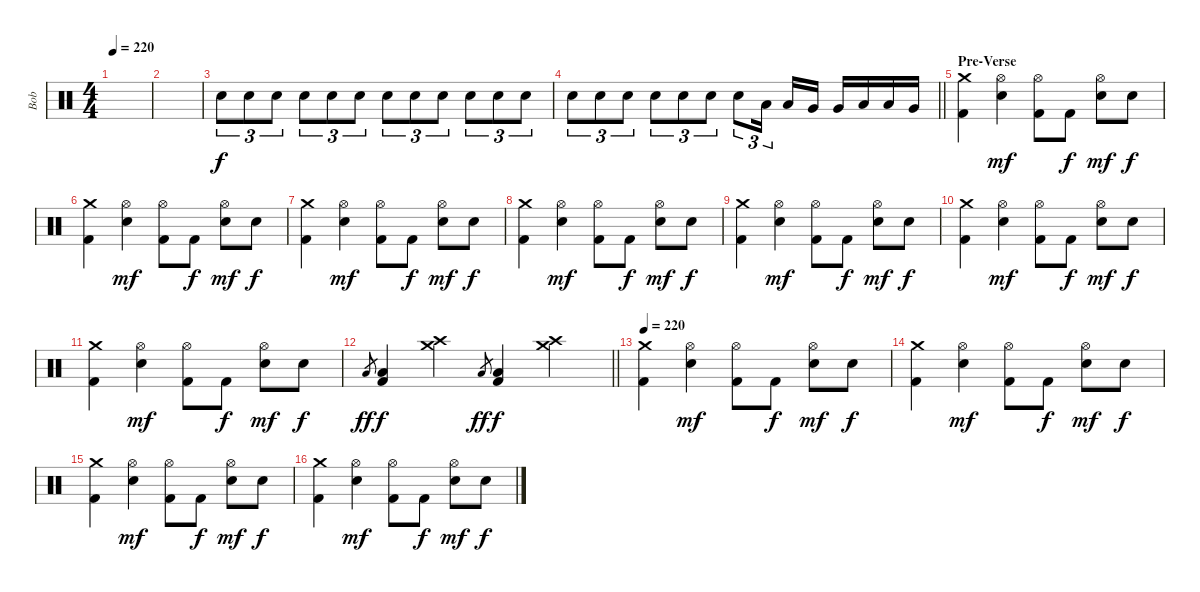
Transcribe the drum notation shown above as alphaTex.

\track ("Bob" "Bob") {instrument percussion}
\staff {score}
\articulation defaults
\ts (4 4)
\tempo 220
\clef neutral
\ks c
|
|
"Snare (hit) 2".8{tu (3 2)} "Snare (hit) 2".8{tu (3 2)} "Snare (hit) 2".8{tu (3 2)} "Snare (hit) 2".8{tu (3 2)} "Snare (hit) 2".8{tu (3 2)} "Snare (hit) 2".8{tu (3 2)} "Snare (hit) 2".8{tu (3 2)} "Snare (hit) 2".8{tu (3 2)} "Snare (hit) 2".8{tu (3 2)} "Snare (hit) 2".8{tu (3 2)} "Snare (hit) 2".8{tu (3 2)} "Snare (hit) 2".8{tu (3 2)} |
\barLineRight lightlight "Snare (hit) 2".8{tu (3 2)} "Snare (hit) 2".8{tu (3 2)} "Snare (hit) 2".8{tu (3 2)} "Snare (hit) 2".8{tu (3 2)} "Snare (hit) 2".8{tu (3 2)} "Snare (hit) 2".8{tu (3 2)} "Snare (hit) 2".8{tu (3 2)} "Low Tom (hit)".16{tu (3 2)} "Low Tom (hit)".16 "Very Low Tom (hit)".16 "Very Low Tom (hit)".16 "Low Floor Tom (hit)".16 "Low Floor Tom (hit)".16 "Very Low Tom (hit)".16
|
\section ("" "Pre-Verse")
("Crash medium (hit)" "Kick (hit) 2").4 ("Hi-Hat (open)" "Electric Snare (hit)").4{dy mf} ("Hi-Hat (open)" "Kick (hit) 2").8 "Kick (hit) 2".8{dy f} ("Hi-Hat (open)" "Electric Snare (hit)").8{dy mf} "Electric Snare (hit)".8{dy f} |
("Crash medium (hit)" "Kick (hit) 2").4 ("Hi-Hat (open)" "Electric Snare (hit)").4{dy mf} ("Hi-Hat (open)" "Kick (hit) 2").8 "Kick (hit) 2".8{dy f} ("Hi-Hat (open)" "Electric Snare (hit)").8{dy mf} "Electric Snare (hit)".8{dy f} |
("Crash medium (hit)" "Kick (hit) 2").4 ("Hi-Hat (open)" "Electric Snare (hit)").4{dy mf} ("Hi-Hat (open)" "Kick (hit) 2").8 "Kick (hit) 2".8{dy f} ("Hi-Hat (open)" "Electric Snare (hit)").8{dy mf} "Electric Snare (hit)".8{dy f} |
("Crash medium (hit)" "Kick (hit) 2").4 ("Hi-Hat (open)" "Electric Snare (hit)").4{dy mf} ("Hi-Hat (open)" "Kick (hit) 2").8 "Kick (hit) 2".8{dy f} ("Hi-Hat (open)" "Electric Snare (hit)").8{dy mf} "Electric Snare (hit)".8{dy f} |
("Crash medium (hit)" "Kick (hit) 2").4 ("Hi-Hat (open)" "Electric Snare (hit)").4{dy mf} ("Hi-Hat (open)" "Kick (hit) 2").8 "Kick (hit) 2".8{dy f} ("Hi-Hat (open)" "Electric Snare (hit)").8{dy mf} "Electric Snare (hit)".8{dy f} |
("Crash medium (hit)" "Kick (hit) 2").4 ("Hi-Hat (open)" "Electric Snare (hit)").4{dy mf} ("Hi-Hat (open)" "Kick (hit) 2").8 "Kick (hit) 2".8{dy f} ("Hi-Hat (open)" "Electric Snare (hit)").8{dy mf} "Electric Snare (hit)".8{dy f} |
("Crash medium (hit)" "Kick (hit) 2").4 ("Hi-Hat (open)" "Electric Snare (hit)").4{dy mf} ("Hi-Hat (open)" "Kick (hit) 2").8 "Kick (hit) 2".8{dy f} ("Hi-Hat (open)" "Electric Snare (hit)").8{dy mf} "Electric Snare (hit)".8{dy f} |
\barLineRight lightlight "Low Floor Tom (hit)".8{gr dy ff}
("Low Floor Tom (hit)" "Kick (hit) 2").4{dy f} ("Crash medium (hit)" "Crash high (hit)").4 "Low Floor Tom (hit)".8{gr dy ff} ("Low Floor Tom (hit)" "Kick (hit) 2").4{dy f} ("Crash medium (hit)" "Crash high (hit)").4 |
\tempo 220
("Crash medium (hit)" "Kick (hit) 2").4 ("Hi-Hat (open)" "Electric Snare (hit)").4{dy mf} ("Hi-Hat (open)" "Kick (hit) 2").8 "Kick (hit) 2".8{dy f} ("Hi-Hat (open)" "Electric Snare (hit)").8{dy mf} "Electric Snare (hit)".8{dy f} |
("Crash medium (hit)" "Kick (hit) 2").4 ("Hi-Hat (open)" "Electric Snare (hit)").4{dy mf} ("Hi-Hat (open)" "Kick (hit) 2").8 "Kick (hit) 2".8{dy f} ("Hi-Hat (open)" "Electric Snare (hit)").8{dy mf} "Electric Snare (hit)".8{dy f} |
("Crash medium (hit)" "Kick (hit) 2").4 ("Hi-Hat (open)" "Electric Snare (hit)").4{dy mf} ("Hi-Hat (open)" "Kick (hit) 2").8 "Kick (hit) 2".8{dy f} ("Hi-Hat (open)" "Electric Snare (hit)").8{dy mf} "Electric Snare (hit)".8{dy f} |
("Crash medium (hit)" "Kick (hit) 2").4 ("Hi-Hat (open)" "Electric Snare (hit)").4{dy mf} ("Hi-Hat (open)" "Kick (hit) 2").8 "Kick (hit) 2".8{dy f} ("Hi-Hat (open)" "Electric Snare (hit)").8{dy mf} "Electric Snare (hit)".8{dy f}
